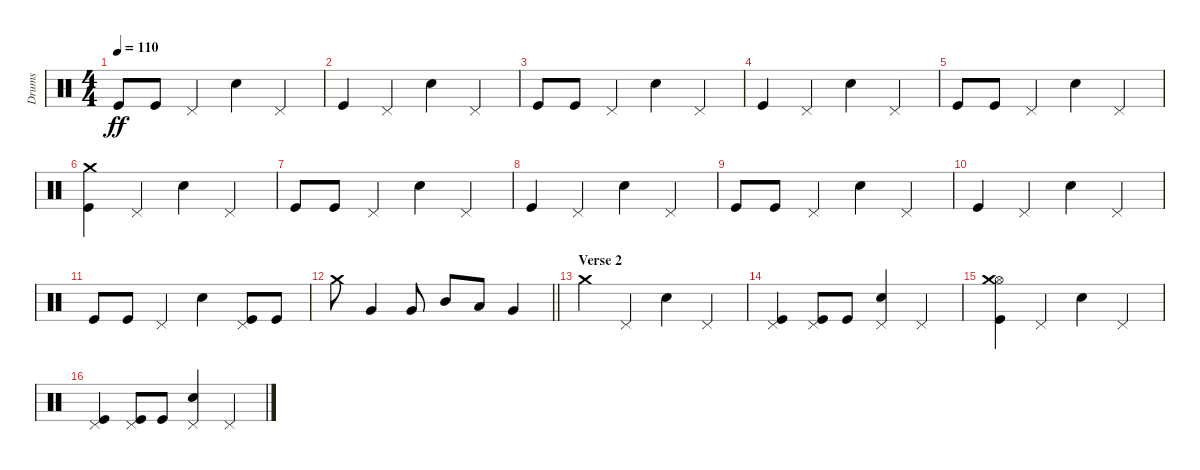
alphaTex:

\track ("Drums" "Drums") {instrument percussion}
\staff {score}
\articulation defaults
\ts (4 4)
\tempo 110
\clef neutral
\ks c "Kick (hit)".8{dy ff} "Kick (hit)".8 "Pedal Hi-Hat (hit)".4 "Electric Snare (hit)".4 "Pedal Hi-Hat (hit)".4
|
"Kick (hit)".4 "Pedal Hi-Hat (hit)".4 "Electric Snare (hit)".4 "Pedal Hi-Hat (hit)".4 |
"Kick (hit)".8 "Kick (hit)".8 "Pedal Hi-Hat (hit)".4 "Electric Snare (hit)".4 "Pedal Hi-Hat (hit)".4 |
"Kick (hit)".4 "Pedal Hi-Hat (hit)".4 "Electric Snare (hit)".4 "Pedal Hi-Hat (hit)".4 |
"Kick (hit)".8 "Kick (hit)".8 "Pedal Hi-Hat (hit)".4 "Electric Snare (hit)".4 "Pedal Hi-Hat (hit)".4 |
("Kick (hit)" "Crash medium (hit)").4 "Pedal Hi-Hat (hit)".4 "Electric Snare (hit)".4 "Pedal Hi-Hat (hit)".4 |
"Kick (hit)".8 "Kick (hit)".8 "Pedal Hi-Hat (hit)".4 "Electric Snare (hit)".4 "Pedal Hi-Hat (hit)".4 |
"Kick (hit)".4 "Pedal Hi-Hat (hit)".4 "Electric Snare (hit)".4 "Pedal Hi-Hat (hit)".4 |
"Kick (hit)".8 "Kick (hit)".8 "Pedal Hi-Hat (hit)".4 "Electric Snare (hit)".4 "Pedal Hi-Hat (hit)".4 |
"Kick (hit)".4 "Pedal Hi-Hat (hit)".4 "Electric Snare (hit)".4 "Pedal Hi-Hat (hit)".4 |
"Kick (hit)".8 "Kick (hit)".8 "Pedal Hi-Hat (hit)".4 "Electric Snare (hit)".4 ("Kick (hit)" "Pedal Hi-Hat (hit)").8 "Kick (hit)".8 |
\barLineRight lightlight "Crash medium (hit)".8 "Very Low Tom (hit)".4 "Very Low Tom (hit)".8 "Mid Tom (hit)".8 "Low Tom (hit)".8 "Very Low Tom (hit)".4
|
\section ("" "Verse 2")
"Crash medium (hit)".4 "Pedal Hi-Hat (hit)".4 "Electric Snare (hit)".4 "Pedal Hi-Hat (hit)".4 |
("Kick (hit)" "Pedal Hi-Hat (hit)").4 ("Kick (hit)" "Pedal Hi-Hat (hit)").8 "Kick (hit)".8 ("Electric Snare (hit)" "Pedal Hi-Hat (hit)").4 "Pedal Hi-Hat (hit)".4 |
("Kick (hit)" "Hi-Hat (open)" "Crash medium (hit)").4 "Pedal Hi-Hat (hit)".4 "Electric Snare (hit)".4 "Pedal Hi-Hat (hit)".4 |
("Kick (hit)" "Pedal Hi-Hat (hit)").4 ("Kick (hit)" "Pedal Hi-Hat (hit)").8 "Kick (hit)".8 ("Electric Snare (hit)" "Pedal Hi-Hat (hit)").4 "Pedal Hi-Hat (hit)".4
